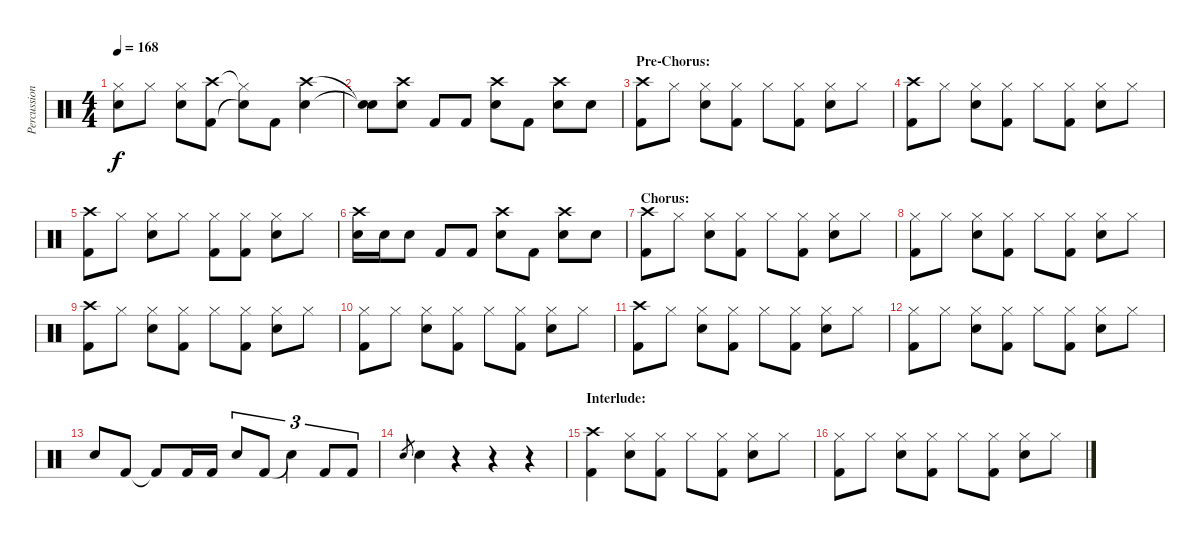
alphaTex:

\track ("Percussion" "Percussion") {instrument percussion}
\staff {score}
\articulation defaults
\ts (4 4)
\tempo 168
\clef neutral
\ks c
("Hi-Hat (closed)" "Snare (hit) 2").8{dy f} "Hi-Hat (closed)".8 ("Hi-Hat (closed)" "Snare (hit) 2").8 ("Crash high (hit)" "Kick (hit) 2").8 ("Hi-Hat (closed)"{t} "Snare (hit)"{t}).8 "Kick (hit) 2".8 ("Crash high (hit)" "Snare (hit) 2").4 |
("Snare (hit)"{t} "Snare (hit)"{t}).8 ("Crash high (hit)" "Snare (hit) 2").8 "Kick (hit) 2".8 "Kick (hit) 2".8 ("Crash high (hit)" "Snare (hit) 2").8 "Kick (hit) 2".8 ("Crash high (hit)" "Snare (hit) 2").8 "Snare (hit) 2".8 |
\section ("" "Pre-Chorus:")
("Crash high (hit)" "Kick (hit) 2").8 "Hi-Hat (closed)".8 ("Hi-Hat (closed)" "Snare (hit) 2").8 ("Hi-Hat (closed)" "Kick (hit) 2").8 "Hi-Hat (closed)".8 ("Hi-Hat (closed)" "Kick (hit) 2").8 ("Hi-Hat (closed)" "Snare (hit) 2").8 "Hi-Hat (closed)".8 |
("Crash high (hit)" "Kick (hit) 2").8 "Hi-Hat (closed)".8 ("Hi-Hat (closed)" "Snare (hit) 2").8 ("Hi-Hat (closed)" "Kick (hit) 2").8 "Hi-Hat (closed)".8 ("Hi-Hat (closed)" "Kick (hit) 2").8 ("Hi-Hat (closed)" "Snare (hit) 2").8 "Hi-Hat (closed)".8 |
("Crash high (hit)" "Kick (hit) 2").8 "Hi-Hat (closed)".8 ("Hi-Hat (closed)" "Snare (hit) 2").8 "Hi-Hat (closed)".8 ("Hi-Hat (closed)" "Kick (hit) 2").8 ("Hi-Hat (closed)" "Kick (hit) 2").8 ("Hi-Hat (closed)" "Snare (hit) 2").8 "Hi-Hat (closed)".8 |
("Crash high (hit)" "Snare (hit) 2").16 "Snare (hit) 2".16 "Snare (hit) 2".8 "Kick (hit) 2".8 "Kick (hit) 2".8 ("Crash high (hit)" "Snare (hit) 2").8 "Kick (hit) 2".8 ("Crash high (hit)" "Snare (hit) 2").8 "Snare (hit) 2".8 |
\section ("" "Chorus:")
("Crash high (hit)" "Kick (hit) 2").8 "Hi-Hat (closed)".8 ("Hi-Hat (closed)" "Snare (hit) 2").8 ("Hi-Hat (closed)" "Kick (hit) 2").8 "Hi-Hat (closed)".8 ("Hi-Hat (closed)" "Kick (hit) 2").8 ("Hi-Hat (closed)" "Snare (hit) 2").8 "Hi-Hat (closed)".8 |
("Hi-Hat (closed)" "Kick (hit) 2").8 "Hi-Hat (closed)".8 ("Hi-Hat (closed)" "Snare (hit) 2").8 ("Hi-Hat (closed)" "Kick (hit) 2").8 "Hi-Hat (closed)".8 ("Hi-Hat (closed)" "Kick (hit) 2").8 ("Hi-Hat (closed)" "Snare (hit) 2").8 "Hi-Hat (closed)".8 |
("Crash high (hit)" "Kick (hit) 2").8 "Hi-Hat (closed)".8 ("Hi-Hat (closed)" "Snare (hit) 2").8 ("Hi-Hat (closed)" "Kick (hit) 2").8 "Hi-Hat (closed)".8 ("Hi-Hat (closed)" "Kick (hit) 2").8 ("Hi-Hat (closed)" "Snare (hit) 2").8 "Hi-Hat (closed)".8 |
("Hi-Hat (closed)" "Kick (hit) 2").8 "Hi-Hat (closed)".8 ("Hi-Hat (closed)" "Snare (hit) 2").8 ("Hi-Hat (closed)" "Kick (hit) 2").8 "Hi-Hat (closed)".8 ("Hi-Hat (closed)" "Kick (hit) 2").8 ("Hi-Hat (closed)" "Snare (hit) 2").8 "Hi-Hat (closed)".8 |
("Crash high (hit)" "Kick (hit) 2").8 "Hi-Hat (closed)".8 ("Hi-Hat (closed)" "Snare (hit) 2").8 ("Hi-Hat (closed)" "Kick (hit) 2").8 "Hi-Hat (closed)".8 ("Hi-Hat (closed)" "Kick (hit) 2").8 ("Hi-Hat (closed)" "Snare (hit) 2").8 "Hi-Hat (closed)".8 |
("Hi-Hat (closed)" "Kick (hit) 2").8 "Hi-Hat (closed)".8 ("Hi-Hat (closed)" "Snare (hit) 2").8 ("Hi-Hat (closed)" "Kick (hit) 2").8 "Hi-Hat (closed)".8 ("Hi-Hat (closed)" "Kick (hit) 2").8 ("Hi-Hat (closed)" "Snare (hit) 2").8 "Hi-Hat (closed)".8 |
"Snare (hit) 2".8 "Kick (hit) 2".8 "Kick (hit) 2"{t}.8 "Kick (hit) 2".16 "Kick (hit) 2".16 "Snare (hit) 2".8{tu (3 2)} "Kick (hit) 2".8{tu (3 2)} "Snare (hit)"{t}.4{tu (3 2)} "Kick (hit) 2".8{tu (3 2)} "Kick (hit) 2".8{tu (3 2)} |
"Snare (hit) 2".8{gr} "Snare (hit) 2".4 r.4 r.4 r.4 |
\section ("" "Interlude:")
("Crash high (hit)" "Kick (hit) 2").4 ("Hi-Hat (closed)" "Snare (hit) 2").8 ("Hi-Hat (closed)" "Kick (hit) 2").8 "Hi-Hat (closed)".8 ("Hi-Hat (closed)" "Kick (hit) 2").8 ("Hi-Hat (closed)" "Snare (hit) 2").8 "Hi-Hat (closed)".8 |
("Hi-Hat (closed)" "Kick (hit) 2").8 "Hi-Hat (closed)".8 ("Hi-Hat (closed)" "Snare (hit) 2").8 ("Hi-Hat (closed)" "Kick (hit) 2").8 "Hi-Hat (closed)".8 ("Hi-Hat (closed)" "Kick (hit) 2").8 ("Hi-Hat (closed)" "Snare (hit) 2").8 "Hi-Hat (closed)".8
